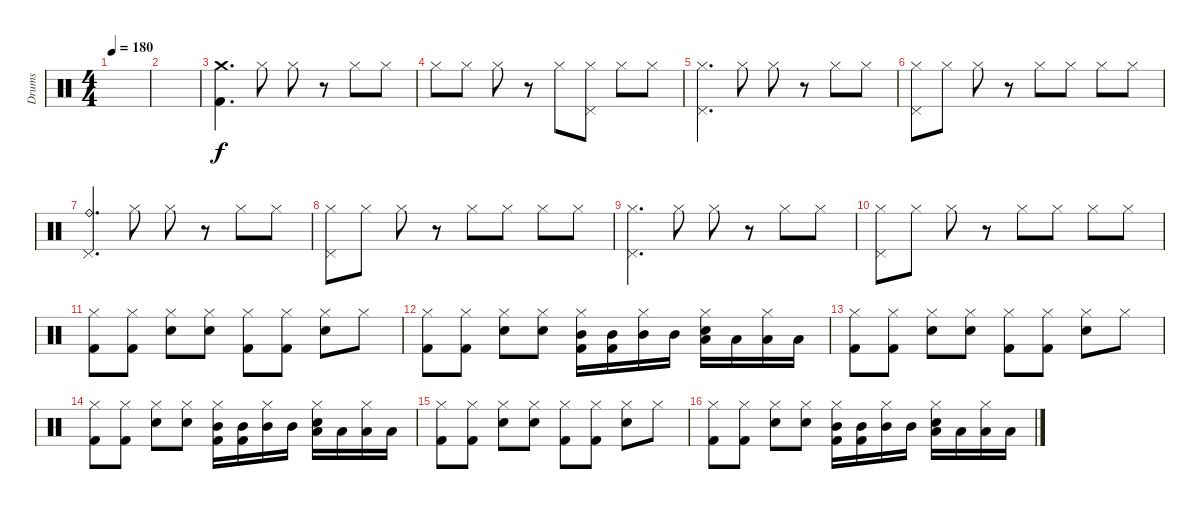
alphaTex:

\track ("Drums" "Drums") {instrument percussion}
\staff {score}
\articulation defaults
\ts (4 4)
\tempo 180
\clef neutral
\ks c
|
|
("Crash medium (hit)" "Kick (hit) 2").4{d} "Hi-Hat (closed)".8 "Hi-Hat (closed)".8 r.8 "Hi-Hat (closed)".8 "Hi-Hat (closed)".8 |
"Hi-Hat (closed)".8 "Hi-Hat (closed)".8 "Hi-Hat (closed)".8 r.8 "Hi-Hat (closed)".8 ("Hi-Hat (closed)" "Pedal Hi-Hat (hit)").8 "Hi-Hat (closed)".8 "Hi-Hat (closed)".8 |
("Hi-Hat (closed)" "Pedal Hi-Hat (hit)").4{d} "Hi-Hat (closed)".8 "Hi-Hat (closed)".8 r.8 "Hi-Hat (closed)".8 "Hi-Hat (closed)".8 |
("Hi-Hat (closed)" "Pedal Hi-Hat (hit)").8 "Hi-Hat (closed)".8 "Hi-Hat (closed)".8 r.8 "Hi-Hat (closed)".8 "Hi-Hat (closed)".8 "Hi-Hat (closed)".8 "Hi-Hat (closed)".8 |
("Ride (bell)" "Pedal Hi-Hat (hit)").4{d} "Hi-Hat (closed)".8 "Hi-Hat (closed)".8 r.8 "Hi-Hat (closed)".8 "Hi-Hat (closed)".8 |
("Hi-Hat (closed)" "Pedal Hi-Hat (hit)").8 "Hi-Hat (closed)".8 "Hi-Hat (closed)".8 r.8 "Hi-Hat (closed)".8 "Hi-Hat (closed)".8 "Hi-Hat (closed)".8 "Hi-Hat (closed)".8 |
("Hi-Hat (closed)" "Pedal Hi-Hat (hit)").4{d} "Hi-Hat (closed)".8 "Hi-Hat (closed)".8 r.8 "Hi-Hat (closed)".8 "Hi-Hat (closed)".8 |
("Hi-Hat (closed)" "Pedal Hi-Hat (hit)").8 "Hi-Hat (closed)".8 "Hi-Hat (closed)".8 r.8 "Hi-Hat (closed)".8 "Hi-Hat (closed)".8 "Hi-Hat (closed)".8 "Hi-Hat (closed)".8 |
("Hi-Hat (closed)" "Kick (hit) 2").8 ("Hi-Hat (closed)" "Kick (hit) 2").8 ("Hi-Hat (closed)" "Electric Snare (hit)").8 ("Hi-Hat (closed)" "Electric Snare (hit)").8 ("Hi-Hat (closed)" "Kick (hit) 2").8 ("Hi-Hat (closed)" "Kick (hit) 2").8 ("Hi-Hat (closed)" "Electric Snare (hit)").8 "Hi-Hat (closed)".8 |
("Hi-Hat (closed)" "Kick (hit) 2").8 ("Hi-Hat (closed)" "Kick (hit) 2").8 ("Hi-Hat (closed)" "Electric Snare (hit)").8 ("Hi-Hat (closed)" "Electric Snare (hit)").8 ("Hi-Hat (closed)" "Mid Tom (hit)" "Kick (hit) 2").16 ("Mid Tom (hit)" "Kick (hit) 2").16 ("Hi-Hat (closed)" "Mid Tom (hit)").16 "Mid Tom (hit)".16 ("Hi-Hat (closed)" "Low Tom (hit)" "Electric Snare (hit)").16 "Low Tom (hit)".16 ("Hi-Hat (closed)" "Low Tom (hit)").16 "Low Tom (hit)".16 |
("Hi-Hat (closed)" "Kick (hit) 2").8 ("Hi-Hat (closed)" "Kick (hit) 2").8 ("Hi-Hat (closed)" "Electric Snare (hit)").8 ("Hi-Hat (closed)" "Electric Snare (hit)").8 ("Hi-Hat (closed)" "Kick (hit) 2").8 ("Hi-Hat (closed)" "Kick (hit) 2").8 ("Hi-Hat (closed)" "Electric Snare (hit)").8 "Hi-Hat (closed)".8 |
("Hi-Hat (closed)" "Kick (hit) 2").8 ("Hi-Hat (closed)" "Kick (hit) 2").8 ("Hi-Hat (closed)" "Electric Snare (hit)").8 ("Hi-Hat (closed)" "Electric Snare (hit)").8 ("Hi-Hat (closed)" "Mid Tom (hit)" "Kick (hit) 2").16 ("Mid Tom (hit)" "Kick (hit) 2").16 ("Hi-Hat (closed)" "Mid Tom (hit)").16 "Mid Tom (hit)".16 ("Hi-Hat (closed)" "Low Tom (hit)" "Electric Snare (hit)").16 "Low Tom (hit)".16 ("Hi-Hat (closed)" "Low Tom (hit)").16 "Low Tom (hit)".16 |
("Hi-Hat (closed)" "Kick (hit) 2").8 ("Hi-Hat (closed)" "Kick (hit) 2").8 ("Hi-Hat (closed)" "Electric Snare (hit)").8 ("Hi-Hat (closed)" "Electric Snare (hit)").8 ("Hi-Hat (closed)" "Kick (hit) 2").8 ("Hi-Hat (closed)" "Kick (hit) 2").8 ("Hi-Hat (closed)" "Electric Snare (hit)").8 "Hi-Hat (closed)".8 |
("Hi-Hat (closed)" "Kick (hit) 2").8 ("Hi-Hat (closed)" "Kick (hit) 2").8 ("Hi-Hat (closed)" "Electric Snare (hit)").8 ("Hi-Hat (closed)" "Electric Snare (hit)").8 ("Hi-Hat (closed)" "Mid Tom (hit)" "Kick (hit) 2").16 ("Mid Tom (hit)" "Kick (hit) 2").16 ("Hi-Hat (closed)" "Mid Tom (hit)").16 "Mid Tom (hit)".16 ("Hi-Hat (closed)" "Low Tom (hit)" "Electric Snare (hit)").16 "Low Tom (hit)".16 ("Hi-Hat (closed)" "Low Tom (hit)").16 "Low Tom (hit)".16
